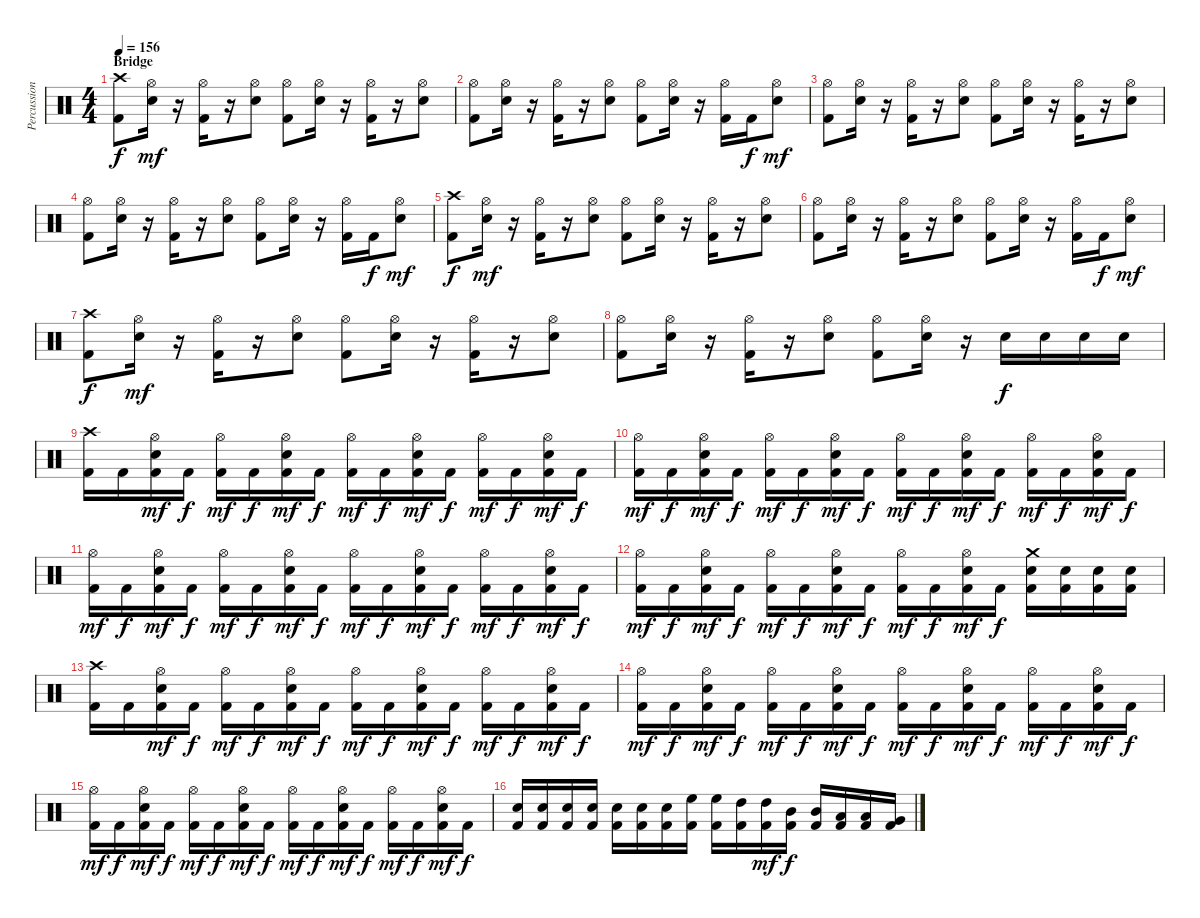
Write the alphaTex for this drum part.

\track ("Percussion" "Percussion") {instrument percussion}
\staff {score}
\articulation defaults
\ts (4 4)
\section ("" "Bridge")
\tempo 156
\clef neutral
\ks c
("Crash high (hit)" "Kick (hit) 2").8{dy f} ("Hi-Hat (open)" "Electric Snare (hit)").16{dy mf} r.16 ("Hi-Hat (open)" "Kick (hit) 2").16 r.16 ("Hi-Hat (open)" "Electric Snare (hit)").8 ("Hi-Hat (open)" "Kick (hit) 2").8 ("Hi-Hat (open)" "Electric Snare (hit)").16 r.16 ("Hi-Hat (open)" "Kick (hit) 2").16 r.16 ("Hi-Hat (open)" "Electric Snare (hit)").8 |
("Hi-Hat (open)" "Kick (hit) 2").8 ("Hi-Hat (open)" "Electric Snare (hit)").16 r.16 ("Hi-Hat (open)" "Kick (hit) 2").16 r.16 ("Hi-Hat (open)" "Electric Snare (hit)").8 ("Hi-Hat (open)" "Kick (hit) 2").8 ("Hi-Hat (open)" "Electric Snare (hit)").16 r.16 ("Hi-Hat (open)" "Kick (hit) 2").16 "Kick (hit) 2".16{dy f} ("Hi-Hat (open)" "Electric Snare (hit)").8{dy mf} |
("Hi-Hat (open)" "Kick (hit) 2").8 ("Hi-Hat (open)" "Electric Snare (hit)").16 r.16 ("Hi-Hat (open)" "Kick (hit) 2").16 r.16 ("Hi-Hat (open)" "Electric Snare (hit)").8 ("Hi-Hat (open)" "Kick (hit) 2").8 ("Hi-Hat (open)" "Electric Snare (hit)").16 r.16 ("Hi-Hat (open)" "Kick (hit) 2").16 r.16 ("Hi-Hat (open)" "Electric Snare (hit)").8 |
("Hi-Hat (open)" "Kick (hit) 2").8 ("Hi-Hat (open)" "Electric Snare (hit)").16 r.16 ("Hi-Hat (open)" "Kick (hit) 2").16 r.16 ("Hi-Hat (open)" "Electric Snare (hit)").8 ("Hi-Hat (open)" "Kick (hit) 2").8 ("Hi-Hat (open)" "Electric Snare (hit)").16 r.16 ("Hi-Hat (open)" "Kick (hit) 2").16 "Kick (hit) 2".16{dy f} ("Hi-Hat (open)" "Electric Snare (hit)").8{dy mf} |
("Crash high (hit)" "Kick (hit) 2").8{dy f} ("Hi-Hat (open)" "Electric Snare (hit)").16{dy mf} r.16 ("Hi-Hat (open)" "Kick (hit) 2").16 r.16 ("Hi-Hat (open)" "Electric Snare (hit)").8 ("Hi-Hat (open)" "Kick (hit) 2").8 ("Hi-Hat (open)" "Electric Snare (hit)").16 r.16 ("Hi-Hat (open)" "Kick (hit) 2").16 r.16 ("Hi-Hat (open)" "Electric Snare (hit)").8 |
("Hi-Hat (open)" "Kick (hit) 2").8 ("Hi-Hat (open)" "Electric Snare (hit)").16 r.16 ("Hi-Hat (open)" "Kick (hit) 2").16 r.16 ("Hi-Hat (open)" "Electric Snare (hit)").8 ("Hi-Hat (open)" "Kick (hit) 2").8 ("Hi-Hat (open)" "Electric Snare (hit)").16 r.16 ("Hi-Hat (open)" "Kick (hit) 2").16 "Kick (hit) 2".16{dy f} ("Hi-Hat (open)" "Electric Snare (hit)").8{dy mf} |
("Crash high (hit)" "Kick (hit) 2").8{dy f} ("Hi-Hat (open)" "Electric Snare (hit)").16{dy mf} r.16 ("Hi-Hat (open)" "Kick (hit) 2").16 r.16 ("Hi-Hat (open)" "Electric Snare (hit)").8 ("Hi-Hat (open)" "Kick (hit) 2").8 ("Hi-Hat (open)" "Electric Snare (hit)").16 r.16 ("Hi-Hat (open)" "Kick (hit) 2").16 r.16 ("Hi-Hat (open)" "Electric Snare (hit)").8 |
("Hi-Hat (open)" "Kick (hit) 2").8 ("Hi-Hat (open)" "Electric Snare (hit)").16 r.16 ("Hi-Hat (open)" "Kick (hit) 2").16 r.16 ("Hi-Hat (open)" "Electric Snare (hit)").8 ("Hi-Hat (open)" "Kick (hit) 2").8 ("Hi-Hat (open)" "Electric Snare (hit)").16 r.16 "Electric Snare (hit)".16{dy f} "Electric Snare (hit)".16 "Electric Snare (hit)".16 "Electric Snare (hit)".16 |
("Crash high (hit)" "Kick (hit) 2").16 "Kick (hit) 2".16 ("Hi-Hat (open)" "Electric Snare (hit)" "Kick (hit) 2").16{dy mf} "Kick (hit) 2".16{dy f} ("Hi-Hat (open)" "Kick (hit) 2").16{dy mf} "Kick (hit) 2".16{dy f} ("Hi-Hat (open)" "Electric Snare (hit)" "Kick (hit) 2").16{dy mf} "Kick (hit) 2".16{dy f} ("Hi-Hat (open)" "Kick (hit) 2").16{dy mf} "Kick (hit) 2".16{dy f} ("Hi-Hat (open)" "Electric Snare (hit)" "Kick (hit) 2").16{dy mf} "Kick (hit) 2".16{dy f} ("Hi-Hat (open)" "Kick (hit) 2").16{dy mf} "Kick (hit) 2".16{dy f} ("Hi-Hat (open)" "Electric Snare (hit)" "Kick (hit) 2").16{dy mf} "Kick (hit) 2".16{dy f} |
("Hi-Hat (open)" "Kick (hit) 2").16{dy mf} "Kick (hit) 2".16{dy f} ("Hi-Hat (open)" "Electric Snare (hit)" "Kick (hit) 2").16{dy mf} "Kick (hit) 2".16{dy f} ("Hi-Hat (open)" "Kick (hit) 2").16{dy mf} "Kick (hit) 2".16{dy f} ("Hi-Hat (open)" "Electric Snare (hit)" "Kick (hit) 2").16{dy mf} "Kick (hit) 2".16{dy f} ("Hi-Hat (open)" "Kick (hit) 2").16{dy mf} "Kick (hit) 2".16{dy f} ("Hi-Hat (open)" "Electric Snare (hit)" "Kick (hit) 2").16{dy mf} "Kick (hit) 2".16{dy f} ("Hi-Hat (open)" "Kick (hit) 2").16{dy mf} "Kick (hit) 2".16{dy f} ("Hi-Hat (open)" "Electric Snare (hit)" "Kick (hit) 2").16{dy mf} "Kick (hit) 2".16{dy f} |
("Hi-Hat (open)" "Kick (hit) 2").16{dy mf} "Kick (hit) 2".16{dy f} ("Hi-Hat (open)" "Electric Snare (hit)" "Kick (hit) 2").16{dy mf} "Kick (hit) 2".16{dy f} ("Hi-Hat (open)" "Kick (hit) 2").16{dy mf} "Kick (hit) 2".16{dy f} ("Hi-Hat (open)" "Electric Snare (hit)" "Kick (hit) 2").16{dy mf} "Kick (hit) 2".16{dy f} ("Hi-Hat (open)" "Kick (hit) 2").16{dy mf} "Kick (hit) 2".16{dy f} ("Hi-Hat (open)" "Electric Snare (hit)" "Kick (hit) 2").16{dy mf} "Kick (hit) 2".16{dy f} ("Hi-Hat (open)" "Kick (hit) 2").16{dy mf} "Kick (hit) 2".16{dy f} ("Hi-Hat (open)" "Electric Snare (hit)" "Kick (hit) 2").16{dy mf} "Kick (hit) 2".16{dy f} |
("Hi-Hat (open)" "Kick (hit) 2").16{dy mf} "Kick (hit) 2".16{dy f} ("Hi-Hat (open)" "Electric Snare (hit)" "Kick (hit) 2").16{dy mf} "Kick (hit) 2".16{dy f} ("Hi-Hat (open)" "Kick (hit) 2").16{dy mf} "Kick (hit) 2".16{dy f} ("Hi-Hat (open)" "Electric Snare (hit)" "Kick (hit) 2").16{dy mf} "Kick (hit) 2".16{dy f} ("Hi-Hat (open)" "Kick (hit) 2").16{dy mf} "Kick (hit) 2".16{dy f} ("Hi-Hat (open)" "Electric Snare (hit)" "Kick (hit) 2").16{dy mf} "Kick (hit) 2".16{dy f} ("Crash medium (hit)" "Electric Snare (hit)" "Kick (hit) 2").16 ("Electric Snare (hit)" "Kick (hit) 2").16 ("Electric Snare (hit)" "Kick (hit) 2").16 ("Electric Snare (hit)" "Kick (hit) 2").16 |
("Crash high (hit)" "Kick (hit) 2").16 "Kick (hit) 2".16 ("Hi-Hat (open)" "Electric Snare (hit)" "Kick (hit) 2").16{dy mf} "Kick (hit) 2".16{dy f} ("Hi-Hat (open)" "Kick (hit) 2").16{dy mf} "Kick (hit) 2".16{dy f} ("Hi-Hat (open)" "Electric Snare (hit)" "Kick (hit) 2").16{dy mf} "Kick (hit) 2".16{dy f} ("Hi-Hat (open)" "Kick (hit) 2").16{dy mf} "Kick (hit) 2".16{dy f} ("Hi-Hat (open)" "Electric Snare (hit)" "Kick (hit) 2").16{dy mf} "Kick (hit) 2".16{dy f} ("Hi-Hat (open)" "Kick (hit) 2").16{dy mf} "Kick (hit) 2".16{dy f} ("Hi-Hat (open)" "Electric Snare (hit)" "Kick (hit) 2").16{dy mf} "Kick (hit) 2".16{dy f} |
("Hi-Hat (open)" "Kick (hit) 2").16{dy mf} "Kick (hit) 2".16{dy f} ("Hi-Hat (open)" "Electric Snare (hit)" "Kick (hit) 2").16{dy mf} "Kick (hit) 2".16{dy f} ("Hi-Hat (open)" "Kick (hit) 2").16{dy mf} "Kick (hit) 2".16{dy f} ("Hi-Hat (open)" "Electric Snare (hit)" "Kick (hit) 2").16{dy mf} "Kick (hit) 2".16{dy f} ("Hi-Hat (open)" "Kick (hit) 2").16{dy mf} "Kick (hit) 2".16{dy f} ("Hi-Hat (open)" "Electric Snare (hit)" "Kick (hit) 2").16{dy mf} "Kick (hit) 2".16{dy f} ("Hi-Hat (open)" "Kick (hit) 2").16{dy mf} "Kick (hit) 2".16{dy f} ("Hi-Hat (open)" "Electric Snare (hit)" "Kick (hit) 2").16{dy mf} "Kick (hit) 2".16{dy f} |
("Hi-Hat (open)" "Kick (hit) 2").16{dy mf} "Kick (hit) 2".16{dy f} ("Hi-Hat (open)" "Electric Snare (hit)" "Kick (hit) 2").16{dy mf} "Kick (hit) 2".16{dy f} ("Hi-Hat (open)" "Kick (hit) 2").16{dy mf} "Kick (hit) 2".16{dy f} ("Hi-Hat (open)" "Electric Snare (hit)" "Kick (hit) 2").16{dy mf} "Kick (hit) 2".16{dy f} ("Hi-Hat (open)" "Kick (hit) 2").16{dy mf} "Kick (hit) 2".16{dy f} ("Hi-Hat (open)" "Electric Snare (hit)" "Kick (hit) 2").16{dy mf} "Kick (hit) 2".16{dy f} ("Hi-Hat (open)" "Kick (hit) 2").16{dy mf} "Kick (hit) 2".16{dy f} ("Hi-Hat (open)" "Electric Snare (hit)" "Kick (hit) 2").16{dy mf} "Kick (hit) 2".16{dy f} |
("Electric Snare (hit)" "Kick (hit) 2").16 ("Electric Snare (hit)" "Kick (hit) 2").16 ("Electric Snare (hit)" "Kick (hit) 2").16 ("Electric Snare (hit)" "Kick (hit) 2").16 ("Electric Snare (hit)" "Kick (hit) 2").16 ("Electric Snare (hit)" "Kick (hit) 2").16 ("Electric Snare (hit)" "Kick (hit) 2").16 ("High Floor Tom (hit)" "Kick (hit) 2").16 ("High Floor Tom (hit)" "Kick (hit) 2").16 ("High Tom (hit)" "Kick (hit) 2").16 ("High Tom (hit)" "Kick (hit) 2").16{dy mf} ("Mid Tom (hit)" "Kick (hit) 2").16{dy f} ("Mid Tom (hit)" "Kick (hit) 2").16 ("Low Tom (hit)" "Kick (hit) 2").16 ("Low Tom (hit)" "Kick (hit) 2").16 ("Very Low Tom (hit)" "Kick (hit) 2").16
